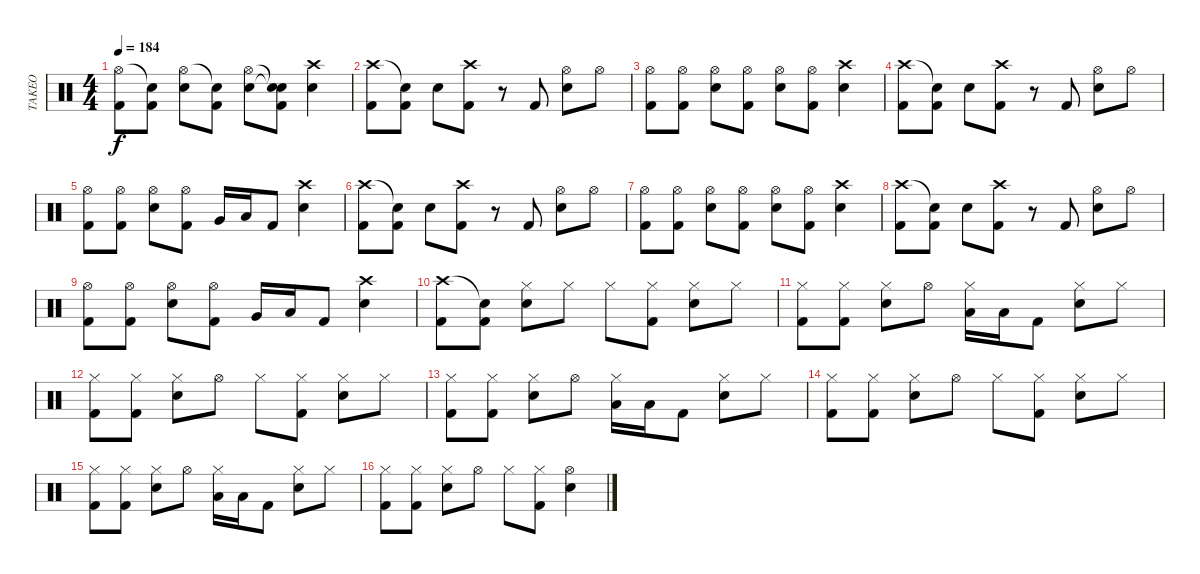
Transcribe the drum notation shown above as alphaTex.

\track ("TAKEO" "TAKEO") {instrument percussion}
\staff {score}
\articulation defaults
\ts (4 4)
\tempo 184
\clef neutral
\ks c
("Hi-Hat (open)" "Kick (hit) 2").8{dy f} ("Snare (hit)"{t} "Kick (hit) 2").8 ("Hi-Hat (open)" "Electric Snare (hit)").8 ("Snare (hit)"{t} "Kick (hit) 2").8 ("Hi-Hat (open)" "Electric Snare (hit)").8 ("Snare (hit)"{t} "Snare (hit)"{t} "Kick (hit) 2").8 ("Crash high (hit)" "Electric Snare (hit)").4 |
("Crash high (hit)" "Kick (hit) 2").8 ("Snare (hit)"{t} "Kick (hit) 2").8 "Electric Snare (hit)".8 ("Crash high (hit)" "Kick (hit) 2").8 r.8 "Kick (hit) 2".8 ("Hi-Hat (open)" "Electric Snare (hit)").8 "Hi-Hat (open)".8 |
("Hi-Hat (open)" "Kick (hit) 2").8 ("Hi-Hat (open)" "Kick (hit) 2").8 ("Hi-Hat (open)" "Electric Snare (hit)").8 ("Hi-Hat (open)" "Kick (hit) 2").8 ("Hi-Hat (open)" "Electric Snare (hit)").8 ("Hi-Hat (open)" "Kick (hit) 2").8 ("Crash high (hit)" "Electric Snare (hit)").4 |
("Crash high (hit)" "Kick (hit) 2").8 ("Snare (hit)"{t} "Kick (hit) 2").8 "Electric Snare (hit)".8 ("Crash high (hit)" "Kick (hit) 2").8 r.8 "Kick (hit) 2".8 ("Hi-Hat (open)" "Electric Snare (hit)").8 "Hi-Hat (open)".8 |
("Hi-Hat (open)" "Kick (hit) 2").8 ("Hi-Hat (open)" "Kick (hit) 2").8 ("Hi-Hat (open)" "Electric Snare (hit)").8 ("Hi-Hat (open)" "Kick (hit) 2").8 "Very Low Tom (hit)".16 "Low Tom (hit)".16 "Kick (hit) 2".8 ("Crash high (hit)" "Electric Snare (hit)").4 |
("Crash high (hit)" "Kick (hit) 2").8 ("Snare (hit)"{t} "Kick (hit) 2").8 "Electric Snare (hit)".8 ("Crash high (hit)" "Kick (hit) 2").8 r.8 "Kick (hit) 2".8 ("Hi-Hat (open)" "Electric Snare (hit)").8 "Hi-Hat (open)".8 |
("Hi-Hat (open)" "Kick (hit) 2").8 ("Hi-Hat (open)" "Kick (hit) 2").8 ("Hi-Hat (open)" "Electric Snare (hit)").8 ("Hi-Hat (open)" "Kick (hit) 2").8 ("Hi-Hat (open)" "Electric Snare (hit)").8 ("Hi-Hat (open)" "Kick (hit) 2").8 ("Crash high (hit)" "Electric Snare (hit)").4 |
("Crash high (hit)" "Kick (hit) 2").8 ("Snare (hit)"{t} "Kick (hit) 2").8 "Electric Snare (hit)".8 ("Crash high (hit)" "Kick (hit) 2").8 r.8 "Kick (hit) 2".8 ("Hi-Hat (open)" "Electric Snare (hit)").8 "Hi-Hat (open)".8 |
("Hi-Hat (open)" "Kick (hit) 2").8 ("Hi-Hat (open)" "Kick (hit) 2").8 ("Hi-Hat (open)" "Electric Snare (hit)").8 ("Hi-Hat (open)" "Kick (hit) 2").8 "Very Low Tom (hit)".16 "Low Tom (hit)".16 "Kick (hit) 2".8 ("Crash high (hit)" "Electric Snare (hit)").4 |
("Crash high (hit)" "Kick (hit) 2").8 ("Snare (hit)"{t} "Kick (hit) 2").8 ("Hi-Hat (closed)" "Electric Snare (hit)").8 "Hi-Hat (closed)".8 "Hi-Hat (closed)".8 ("Hi-Hat (closed)" "Kick (hit) 2").8 ("Hi-Hat (closed)" "Electric Snare (hit)").8 "Hi-Hat (closed)".8 |
("Hi-Hat (closed)" "Kick (hit) 2").8 ("Hi-Hat (closed)" "Kick (hit) 2").8 ("Hi-Hat (closed)" "Electric Snare (hit)").8 "Hi-Hat (open)".8 ("Hi-Hat (closed)" "Low Tom (hit)").16 "Low Tom (hit)".16 "Kick (hit) 2".8 ("Hi-Hat (closed)" "Electric Snare (hit)").8 "Hi-Hat (closed)".8 |
("Hi-Hat (closed)" "Kick (hit) 2").8 ("Hi-Hat (closed)" "Kick (hit) 2").8 ("Hi-Hat (closed)" "Electric Snare (hit)").8 "Hi-Hat (open)".8 "Hi-Hat (closed)".8 ("Hi-Hat (closed)" "Kick (hit) 2").8 ("Hi-Hat (closed)" "Electric Snare (hit)").8 "Hi-Hat (closed)".8 |
("Hi-Hat (closed)" "Kick (hit) 2").8 ("Hi-Hat (closed)" "Kick (hit) 2").8 ("Hi-Hat (closed)" "Electric Snare (hit)").8 "Hi-Hat (open)".8 ("Hi-Hat (closed)" "Low Tom (hit)").16 "Low Tom (hit)".16 "Kick (hit) 2".8 ("Hi-Hat (closed)" "Electric Snare (hit)").8 "Hi-Hat (closed)".8 |
("Hi-Hat (closed)" "Kick (hit) 2").8 ("Hi-Hat (closed)" "Kick (hit) 2").8 ("Hi-Hat (closed)" "Electric Snare (hit)").8 "Hi-Hat (open)".8 "Hi-Hat (closed)".8 ("Hi-Hat (closed)" "Kick (hit) 2").8 ("Hi-Hat (closed)" "Electric Snare (hit)").8 "Hi-Hat (closed)".8 |
("Hi-Hat (closed)" "Kick (hit) 2").8 ("Hi-Hat (closed)" "Kick (hit) 2").8 ("Hi-Hat (closed)" "Electric Snare (hit)").8 "Hi-Hat (open)".8 ("Hi-Hat (closed)" "Low Tom (hit)").16 "Low Tom (hit)".16 "Kick (hit) 2".8 ("Hi-Hat (closed)" "Electric Snare (hit)").8 "Hi-Hat (closed)".8 |
("Hi-Hat (closed)" "Kick (hit) 2").8 ("Hi-Hat (closed)" "Kick (hit) 2").8 ("Hi-Hat (closed)" "Electric Snare (hit)").8 "Hi-Hat (open)".8 "Hi-Hat (closed)".8 ("Hi-Hat (closed)" "Kick (hit) 2").8 ("Hi-Hat (open)" "Electric Snare (hit)").4
